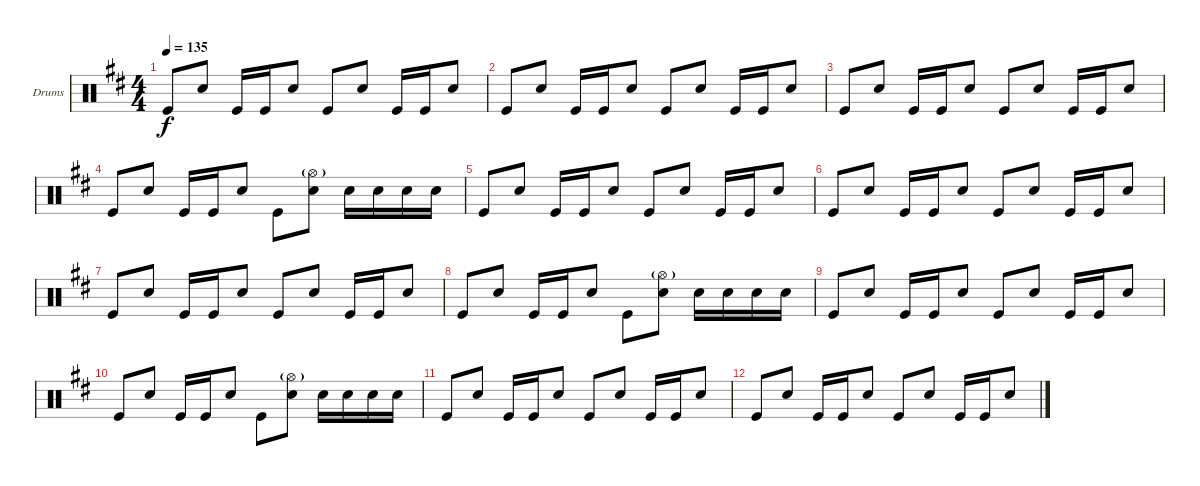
\defaultSystemsLayout 4
\bracketExtendMode groupsimilarinstruments
\firstSystemTrackNameOrientation horizontal
\otherSystemsTrackNameOrientation horizontal
\track ("Drumkit" "Drums") {instrument percussion}
\staff {score}
\articulation defaults
\ts (4 4)
\tempo 135
\clef neutral
\scale
0.973518
\ks d "Kick (hit)".8{dy f} "Snare (hit) 2".8 "Kick (hit)".16 "Kick (hit)".16 "Snare (hit) 2".8 "Kick (hit)".8 "Snare (hit) 2".8 "Kick (hit)".16 "Kick (hit)".16 "Snare (hit) 2".8
|
\scale
1.05296 "Kick (hit)".8 "Snare (hit) 2".8 "Kick (hit)".16 "Kick (hit)".16 "Snare (hit) 2".8 "Kick (hit)".8 "Snare (hit) 2".8 "Kick (hit)".16 "Kick (hit)".16 "Snare (hit) 2".8 |
\scale
0.973518 "Kick (hit)".8 "Snare (hit) 2".8 "Kick (hit)".16 "Kick (hit)".16 "Snare (hit) 2".8 "Kick (hit)".8 "Snare (hit) 2".8 "Kick (hit)".16 "Kick (hit)".16 "Snare (hit) 2".8 |
\scale
0.973518 "Kick (hit)".8 "Snare (hit) 2".8 "Kick (hit)".16 "Kick (hit)".16 "Snare (hit) 2".8 "Kick (hit)".8 ("Snare (hit) 2" "Hi-Hat (open)"{g}).8 "Snare (hit) 2".16 "Snare (hit) 2".16 "Snare (hit) 2".16 "Snare (hit) 2".16 |
\scale
1.05296 "Kick (hit)".8 "Snare (hit) 2".8 "Kick (hit)".16 "Kick (hit)".16 "Snare (hit) 2".8 "Kick (hit)".8 "Snare (hit) 2".8 "Kick (hit)".16 "Kick (hit)".16 "Snare (hit) 2".8 |
\scale
0.973518 "Kick (hit)".8 "Snare (hit) 2".8 "Kick (hit)".16 "Kick (hit)".16 "Snare (hit) 2".8 "Kick (hit)".8 "Snare (hit) 2".8 "Kick (hit)".16 "Kick (hit)".16 "Snare (hit) 2".8 |
\scale
0.973518 "Kick (hit)".8 "Snare (hit) 2".8 "Kick (hit)".16 "Kick (hit)".16 "Snare (hit) 2".8 "Kick (hit)".8 "Snare (hit) 2".8 "Kick (hit)".16 "Kick (hit)".16 "Snare (hit) 2".8 |
\scale
1.05296 "Kick (hit)".8 "Snare (hit) 2".8 "Kick (hit)".16 "Kick (hit)".16 "Snare (hit) 2".8 "Kick (hit)".8 ("Snare (hit) 2" "Hi-Hat (open)"{g}).8 "Snare (hit) 2".16 "Snare (hit) 2".16 "Snare (hit) 2".16 "Snare (hit) 2".16 |
\scale
0.973518 "Kick (hit)".8 "Snare (hit) 2".8 "Kick (hit)".16 "Kick (hit)".16 "Snare (hit) 2".8 "Kick (hit)".8 "Snare (hit) 2".8 "Kick (hit)".16 "Kick (hit)".16 "Snare (hit) 2".8 |
\scale
0.973518 "Kick (hit)".8 "Snare (hit) 2".8 "Kick (hit)".16 "Kick (hit)".16 "Snare (hit) 2".8 "Kick (hit)".8 ("Snare (hit) 2" "Hi-Hat (open)"{g}).8 "Snare (hit) 2".16 "Snare (hit) 2".16 "Snare (hit) 2".16 "Snare (hit) 2".16 |
\scale
1.02648 "Kick (hit)".8 "Snare (hit) 2".8 "Kick (hit)".16 "Kick (hit)".16 "Snare (hit) 2".8 "Kick (hit)".8 "Snare (hit) 2".8 "Kick (hit)".16 "Kick (hit)".16 "Snare (hit) 2".8 |
\scale
0.973518 "Kick (hit)".8 "Snare (hit) 2".8 "Kick (hit)".16 "Kick (hit)".16 "Snare (hit) 2".8 "Kick (hit)".8 "Snare (hit) 2".8 "Kick (hit)".16 "Kick (hit)".16 "Snare (hit) 2".8
